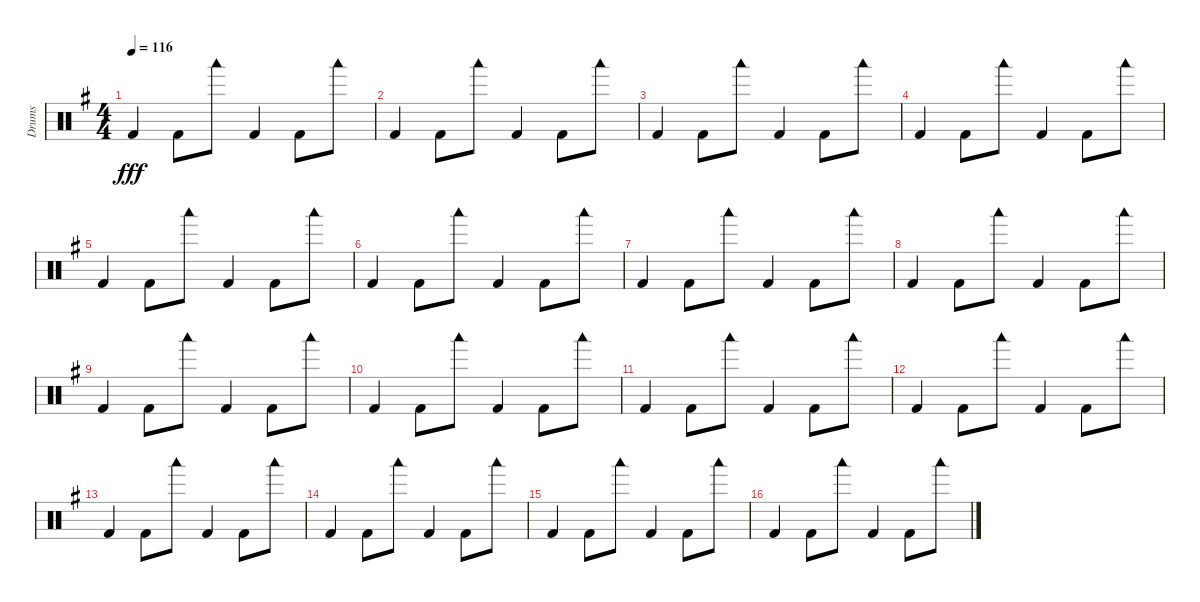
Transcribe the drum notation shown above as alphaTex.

\track ("Drums" "Drums") {instrument percussion}
\staff {score}
\articulation defaults
\ts (4 4)
\tempo 116
\clef neutral
\ks g "Kick (hit) 2".4{dy fff} "Kick (hit) 2".8 "Woodblock low (hit)".8 "Kick (hit) 2".4 "Kick (hit) 2".8 "Woodblock low (hit)".8
|
"Kick (hit) 2".4 "Kick (hit) 2".8 "Woodblock low (hit)".8 "Kick (hit) 2".4 "Kick (hit) 2".8 "Woodblock low (hit)".8 |
"Kick (hit) 2".4 "Kick (hit) 2".8 "Woodblock low (hit)".8 "Kick (hit) 2".4 "Kick (hit) 2".8 "Woodblock low (hit)".8 |
"Kick (hit) 2".4 "Kick (hit) 2".8 "Woodblock low (hit)".8 "Kick (hit) 2".4 "Kick (hit) 2".8 "Woodblock low (hit)".8 |
"Kick (hit) 2".4 "Kick (hit) 2".8 "Woodblock low (hit)".8 "Kick (hit) 2".4 "Kick (hit) 2".8 "Woodblock low (hit)".8 |
"Kick (hit) 2".4 "Kick (hit) 2".8 "Woodblock low (hit)".8 "Kick (hit) 2".4 "Kick (hit) 2".8 "Woodblock low (hit)".8 |
"Kick (hit) 2".4 "Kick (hit) 2".8 "Woodblock low (hit)".8 "Kick (hit) 2".4 "Kick (hit) 2".8 "Woodblock low (hit)".8 |
"Kick (hit) 2".4 "Kick (hit) 2".8 "Woodblock low (hit)".8 "Kick (hit) 2".4 "Kick (hit) 2".8 "Woodblock low (hit)".8 |
"Kick (hit) 2".4 "Kick (hit) 2".8 "Woodblock low (hit)".8 "Kick (hit) 2".4 "Kick (hit) 2".8 "Woodblock low (hit)".8 |
"Kick (hit) 2".4 "Kick (hit) 2".8 "Woodblock low (hit)".8 "Kick (hit) 2".4 "Kick (hit) 2".8 "Woodblock low (hit)".8 |
"Kick (hit) 2".4 "Kick (hit) 2".8 "Woodblock low (hit)".8 "Kick (hit) 2".4 "Kick (hit) 2".8 "Woodblock low (hit)".8 |
"Kick (hit) 2".4 "Kick (hit) 2".8 "Woodblock low (hit)".8 "Kick (hit) 2".4 "Kick (hit) 2".8 "Woodblock low (hit)".8 |
"Kick (hit) 2".4 "Kick (hit) 2".8 "Woodblock low (hit)".8 "Kick (hit) 2".4 "Kick (hit) 2".8 "Woodblock low (hit)".8 |
"Kick (hit) 2".4 "Kick (hit) 2".8 "Woodblock low (hit)".8 "Kick (hit) 2".4 "Kick (hit) 2".8 "Woodblock low (hit)".8 |
"Kick (hit) 2".4 "Kick (hit) 2".8 "Woodblock low (hit)".8 "Kick (hit) 2".4 "Kick (hit) 2".8 "Woodblock low (hit)".8 |
"Kick (hit) 2".4 "Kick (hit) 2".8 "Woodblock low (hit)".8 "Kick (hit) 2".4 "Kick (hit) 2".8 "Woodblock low (hit)".8
